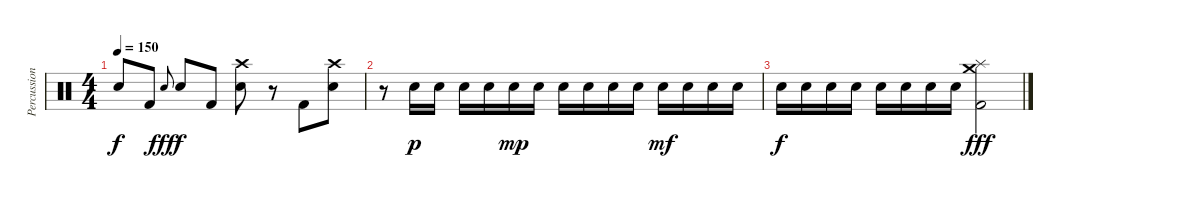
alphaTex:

\track ("Percussion" "Percussion") {instrument percussion}
\staff {score}
\articulation defaults
\ts (4 4)
\tempo 150
\clef neutral
\ks c "Electric Snare (hit)".8{dy f} "Kick (hit) 2".8 "Electric Snare (hit)".8{gr onbeat dy fff} "Electric Snare (hit)".8{dy f} "Kick (hit) 2".8
("Crash high (hit)" "Electric Snare (hit)").8 r.8 "Kick (hit) 2".8 ("Crash high (hit)" "Electric Snare (hit)").8 |
r.8 "Electric Snare (hit)".16{dy p} "Electric Snare (hit)".16 "Electric Snare (hit)".16 "Electric Snare (hit)".16 "Electric Snare (hit)".16{dy mp} "Electric Snare (hit)".16 "Electric Snare (hit)".16 "Electric Snare (hit)".16 "Electric Snare (hit)".16 "Electric Snare (hit)".16 "Electric Snare (hit)".16{dy mf} "Electric Snare (hit)".16 "Electric Snare (hit)".16 "Electric Snare (hit)".16 |
"Electric Snare (hit)".16{dy f} "Electric Snare (hit)".16 "Electric Snare (hit)".16 "Electric Snare (hit)".16 "Electric Snare (hit)".16 "Electric Snare (hit)".16 "Electric Snare (hit)".16 "Electric Snare (hit)".16 ("Crash medium (hit)" "Splash (hit)" "Kick (hit) 2").2{dy fff}
